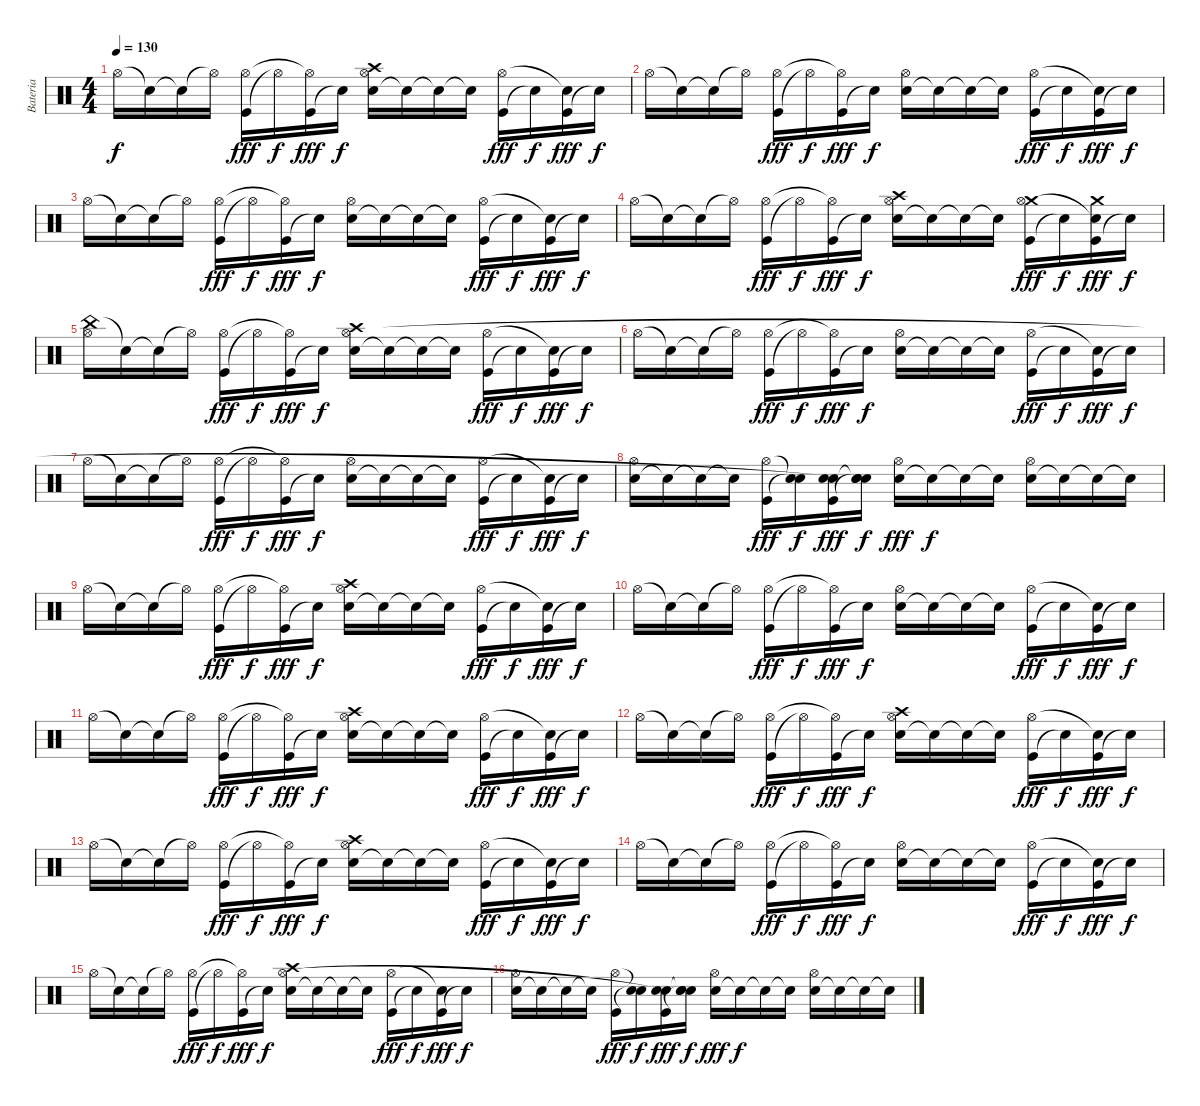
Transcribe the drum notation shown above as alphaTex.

\track ("Bateria" "Bateria") {instrument percussion}
\staff {score}
\articulation defaults
\ts (4 4)
\tempo 130
\clef neutral
\ks c "Hi-Hat (open)".16{dy f} "Snare (hit)"{t}.16 "Snare (hit)"{t}.16 "Hi-Hat (open)"{t}.16
("Kick (hit)" "Hi-Hat (open)").16{dy fff} "Hi-Hat (open)"{t}.16{dy f} ("Kick (hit)" "Hi-Hat (open)"{t}).16{dy fff} "Snare (hit)"{t}.16{dy f} ("Electric Snare (hit)" "Crash high (hit)" "Hi-Hat (open)").16 "Snare (hit)"{t}.16 "Snare (hit)"{t}.16 "Snare (hit)"{t}.16 ("Kick (hit)" "Hi-Hat (open)").16{dy fff} "Snare (hit)"{t}.16{dy f} ("Kick (hit)" "Snare (hit)"{t}).16{dy fff} "Snare (hit)"{t}.16{dy f} |
"Hi-Hat (open)".16 "Snare (hit)"{t}.16 "Snare (hit)"{t}.16 "Hi-Hat (open)"{t}.16 ("Kick (hit)" "Hi-Hat (open)").16{dy fff} "Hi-Hat (open)"{t}.16{dy f} ("Kick (hit)" "Hi-Hat (open)"{t}).16{dy fff} "Snare (hit)"{t}.16{dy f} ("Electric Snare (hit)" "Hi-Hat (open)").16 "Snare (hit)"{t}.16 "Snare (hit)"{t}.16 "Snare (hit)"{t}.16 ("Kick (hit)" "Hi-Hat (open)").16{dy fff} "Snare (hit)"{t}.16{dy f} ("Kick (hit)" "Snare (hit)"{t}).16{dy fff} "Snare (hit)"{t}.16{dy f} |
"Hi-Hat (open)".16 "Snare (hit)"{t}.16 "Snare (hit)"{t}.16 "Hi-Hat (open)"{t}.16 ("Kick (hit)" "Hi-Hat (open)").16{dy fff} "Hi-Hat (open)"{t}.16{dy f} ("Kick (hit)" "Hi-Hat (open)"{t}).16{dy fff} "Snare (hit)"{t}.16{dy f} ("Electric Snare (hit)" "Hi-Hat (open)").16 "Snare (hit)"{t}.16 "Snare (hit)"{t}.16 "Snare (hit)"{t}.16 ("Kick (hit)" "Hi-Hat (open)").16{dy fff} "Snare (hit)"{t}.16{dy f} ("Kick (hit)" "Snare (hit)"{t}).16{dy fff} "Snare (hit)"{t}.16{dy f} |
"Hi-Hat (open)".16 "Snare (hit)"{t}.16 "Snare (hit)"{t}.16 "Hi-Hat (open)"{t}.16 ("Kick (hit)" "Hi-Hat (open)").16{dy fff} "Hi-Hat (open)"{t}.16{dy f} ("Kick (hit)" "Hi-Hat (open)"{t}).16{dy fff} "Snare (hit)"{t}.16{dy f} ("Electric Snare (hit)" "Crash high (hit)" "Hi-Hat (open)").16 "Snare (hit)"{t}.16 "Snare (hit)"{t}.16 "Snare (hit)"{t}.16 ("Kick (hit)" "Crash medium (hit)" "Hi-Hat (open)").16{dy fff} "Snare (hit)"{t}.16{dy f} ("Kick (hit)" "Crash medium (hit)" "Snare (hit)"{t}).16{dy fff} "Snare (hit)"{t}.16{dy f} |
("China (hit)" "Hi-Hat (open)").16 "Snare (hit)"{t}.16 "Snare (hit)"{t}.16 "Hi-Hat (open)"{t}.16 ("Kick (hit)" "Hi-Hat (open)").16{dy fff} "Hi-Hat (open)"{t}.16{dy f} ("Kick (hit)" "Hi-Hat (open)"{t}).16{dy fff} "Snare (hit)"{t}.16{dy f} ("Electric Snare (hit)" "Crash high (hit)" "Hi-Hat (open)").16 "Snare (hit)"{t}.16 "Snare (hit)"{t}.16 "Snare (hit)"{t}.16 ("Kick (hit)" "Hi-Hat (open)").16{dy fff} "Snare (hit)"{t}.16{dy f} ("Kick (hit)" "Snare (hit)"{t}).16{dy fff} "Snare (hit)"{t}.16{dy f} |
"Hi-Hat (open)".16 "Snare (hit)"{t}.16 "Snare (hit)"{t}.16 "Hi-Hat (open)"{t}.16 ("Kick (hit)" "Hi-Hat (open)").16{dy fff} "Hi-Hat (open)"{t}.16{dy f} ("Kick (hit)" "Hi-Hat (open)"{t}).16{dy fff} "Snare (hit)"{t}.16{dy f} ("Electric Snare (hit)" "Hi-Hat (open)").16 "Snare (hit)"{t}.16 "Snare (hit)"{t}.16 "Snare (hit)"{t}.16 ("Kick (hit)" "Hi-Hat (open)").16{dy fff} "Snare (hit)"{t}.16{dy f} ("Kick (hit)" "Snare (hit)"{t}).16{dy fff} "Snare (hit)"{t}.16{dy f} |
"Hi-Hat (open)".16 "Snare (hit)"{t}.16 "Snare (hit)"{t}.16 "Hi-Hat (open)"{t}.16 ("Kick (hit)" "Hi-Hat (open)").16{dy fff} "Hi-Hat (open)"{t}.16{dy f} ("Kick (hit)" "Hi-Hat (open)"{t}).16{dy fff} "Snare (hit)"{t}.16{dy f} ("Electric Snare (hit)" "Hi-Hat (open)").16 "Snare (hit)"{t}.16 "Snare (hit)"{t}.16 "Snare (hit)"{t}.16 ("Kick (hit)" "Hi-Hat (open)").16{dy fff} "Snare (hit)"{t}.16{dy f} ("Kick (hit)" "Snare (hit)"{t}).16{dy fff} "Snare (hit)"{t}.16{dy f} |
("Electric Snare (hit)" "Hi-Hat (open)").16 "Snare (hit)"{t}.16 "Snare (hit)"{t}.16 "Snare (hit)"{t}.16 ("Kick (hit)" "Hi-Hat (open)").16{dy fff} ("Snare (hit)"{t} "Snare (hit)"{t}).16{dy f} ("Kick (hit)" "Electric Snare (hit)" "Snare (hit)"{t}).16{dy fff} ("Snare (hit)"{t} "Electric Snare (hit)" "Snare (hit)"{t}).16{dy f} ("Electric Snare (hit)" "Hi-Hat (open)").16{dy fff} "Snare (hit)"{t}.16{dy f} "Snare (hit)"{t}.16 "Snare (hit)"{t}.16 ("Electric Snare (hit)" "Hi-Hat (open)").16 "Snare (hit)"{t}.16 "Snare (hit)"{t}.16 "Snare (hit)"{t}.16 |
"Hi-Hat (open)".16 "Snare (hit)"{t}.16 "Snare (hit)"{t}.16 "Hi-Hat (open)"{t}.16 ("Kick (hit)" "Hi-Hat (open)").16{dy fff} "Hi-Hat (open)"{t}.16{dy f} ("Kick (hit)" "Hi-Hat (open)"{t}).16{dy fff} "Snare (hit)"{t}.16{dy f} ("Electric Snare (hit)" "Crash high (hit)" "Hi-Hat (open)").16 "Snare (hit)"{t}.16 "Snare (hit)"{t}.16 "Snare (hit)"{t}.16 ("Kick (hit)" "Hi-Hat (open)").16{dy fff} "Snare (hit)"{t}.16{dy f} ("Kick (hit)" "Snare (hit)"{t}).16{dy fff} "Snare (hit)"{t}.16{dy f} |
"Hi-Hat (open)".16 "Snare (hit)"{t}.16 "Snare (hit)"{t}.16 "Hi-Hat (open)"{t}.16 ("Kick (hit)" "Hi-Hat (open)").16{dy fff} "Hi-Hat (open)"{t}.16{dy f} ("Kick (hit)" "Hi-Hat (open)"{t}).16{dy fff} "Snare (hit)"{t}.16{dy f} ("Electric Snare (hit)" "Hi-Hat (open)").16 "Snare (hit)"{t}.16 "Snare (hit)"{t}.16 "Snare (hit)"{t}.16 ("Kick (hit)" "Hi-Hat (open)").16{dy fff} "Snare (hit)"{t}.16{dy f} ("Kick (hit)" "Snare (hit)"{t}).16{dy fff} "Snare (hit)"{t}.16{dy f} |
"Hi-Hat (open)".16 "Snare (hit)"{t}.16 "Snare (hit)"{t}.16 "Hi-Hat (open)"{t}.16 ("Kick (hit)" "Hi-Hat (open)").16{dy fff} "Hi-Hat (open)"{t}.16{dy f} ("Kick (hit)" "Hi-Hat (open)"{t}).16{dy fff} "Snare (hit)"{t}.16{dy f} ("Electric Snare (hit)" "Crash high (hit)" "Hi-Hat (open)").16 "Snare (hit)"{t}.16 "Snare (hit)"{t}.16 "Snare (hit)"{t}.16 ("Kick (hit)" "Hi-Hat (open)").16{dy fff} "Snare (hit)"{t}.16{dy f} ("Kick (hit)" "Snare (hit)"{t}).16{dy fff} "Snare (hit)"{t}.16{dy f} |
"Hi-Hat (open)".16 "Snare (hit)"{t}.16 "Snare (hit)"{t}.16 "Hi-Hat (open)"{t}.16 ("Kick (hit)" "Hi-Hat (open)").16{dy fff} "Hi-Hat (open)"{t}.16{dy f} ("Kick (hit)" "Hi-Hat (open)"{t}).16{dy fff} "Snare (hit)"{t}.16{dy f} ("Electric Snare (hit)" "Crash high (hit)" "Hi-Hat (open)").16 "Snare (hit)"{t}.16 "Snare (hit)"{t}.16 "Snare (hit)"{t}.16 ("Kick (hit)" "Hi-Hat (open)").16{dy fff} "Snare (hit)"{t}.16{dy f} ("Kick (hit)" "Snare (hit)"{t}).16{dy fff} "Snare (hit)"{t}.16{dy f} |
"Hi-Hat (open)".16 "Snare (hit)"{t}.16 "Snare (hit)"{t}.16 "Hi-Hat (open)"{t}.16 ("Kick (hit)" "Hi-Hat (open)").16{dy fff} "Hi-Hat (open)"{t}.16{dy f} ("Kick (hit)" "Hi-Hat (open)"{t}).16{dy fff} "Snare (hit)"{t}.16{dy f} ("Electric Snare (hit)" "Crash high (hit)" "Hi-Hat (open)").16 "Snare (hit)"{t}.16 "Snare (hit)"{t}.16 "Snare (hit)"{t}.16 ("Kick (hit)" "Hi-Hat (open)").16{dy fff} "Snare (hit)"{t}.16{dy f} ("Kick (hit)" "Snare (hit)"{t}).16{dy fff} "Snare (hit)"{t}.16{dy f} |
"Hi-Hat (open)".16 "Snare (hit)"{t}.16 "Snare (hit)"{t}.16 "Hi-Hat (open)"{t}.16 ("Kick (hit)" "Hi-Hat (open)").16{dy fff} "Hi-Hat (open)"{t}.16{dy f} ("Kick (hit)" "Hi-Hat (open)"{t}).16{dy fff} "Snare (hit)"{t}.16{dy f} ("Electric Snare (hit)" "Hi-Hat (open)").16 "Snare (hit)"{t}.16 "Snare (hit)"{t}.16 "Snare (hit)"{t}.16 ("Kick (hit)" "Hi-Hat (open)").16{dy fff} "Snare (hit)"{t}.16{dy f} ("Kick (hit)" "Snare (hit)"{t}).16{dy fff} "Snare (hit)"{t}.16{dy f} |
"Hi-Hat (open)".16 "Snare (hit)"{t}.16 "Snare (hit)"{t}.16 "Hi-Hat (open)"{t}.16 ("Kick (hit)" "Hi-Hat (open)").16{dy fff} "Hi-Hat (open)"{t}.16{dy f} ("Kick (hit)" "Hi-Hat (open)"{t}).16{dy fff} "Snare (hit)"{t}.16{dy f} ("Electric Snare (hit)" "Crash high (hit)" "Hi-Hat (open)").16 "Snare (hit)"{t}.16 "Snare (hit)"{t}.16 "Snare (hit)"{t}.16 ("Kick (hit)" "Hi-Hat (open)").16{dy fff} "Snare (hit)"{t}.16{dy f} ("Kick (hit)" "Snare (hit)"{t}).16{dy fff} "Snare (hit)"{t}.16{dy f} |
("Electric Snare (hit)" "Hi-Hat (open)").16 "Snare (hit)"{t}.16 "Snare (hit)"{t}.16 "Snare (hit)"{t}.16 ("Kick (hit)" "Hi-Hat (open)").16{dy fff} ("Snare (hit)"{t} "Snare (hit)"{t}).16{dy f} ("Kick (hit)" "Electric Snare (hit)" "Snare (hit)"{t}).16{dy fff} ("Snare (hit)"{t} "Electric Snare (hit)" "Snare (hit)"{t}).16{dy f} ("Electric Snare (hit)" "Hi-Hat (open)").16{dy fff} "Snare (hit)"{t}.16{dy f} "Snare (hit)"{t}.16 "Snare (hit)"{t}.16 ("Electric Snare (hit)" "Hi-Hat (open)").16 "Snare (hit)"{t}.16 "Snare (hit)"{t}.16 "Snare (hit)"{t}.16
